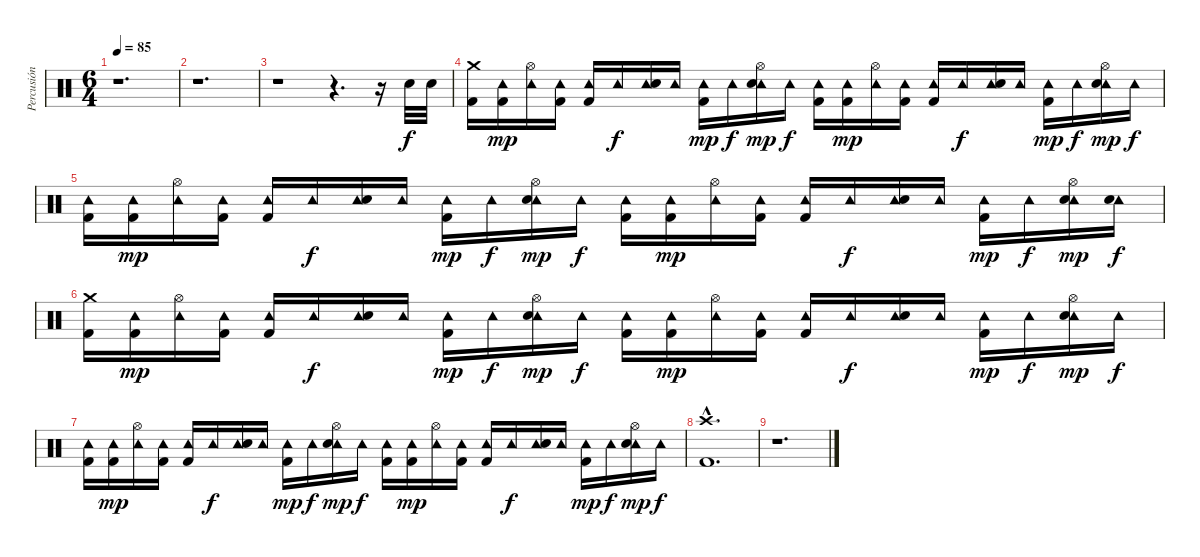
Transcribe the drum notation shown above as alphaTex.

\track ("Percusión" "Percusión") {instrument percussion}
\staff {score}
\articulation defaults
\ts (6 4)
\tempo 85
\clef neutral
\ks c
r.1{d dy f} |
r.1{d} |
r.1 r.4{d} r.16 "Electric Snare (hit)".32 "Electric Snare (hit)".32 |
("Crash medium (hit)" "Kick (hit) 2").16 ("Tambourine (hit)" "Kick (hit) 2").16{dy mp} ("Hi-Hat (open)" "Tambourine (hit)").16 ("Tambourine (hit)" "Kick (hit) 2").16 ("Tambourine (hit)" "Kick (hit) 2").16 "Tambourine (hit)".16{dy f} ("Tambourine (hit)" "Electric Snare (hit)").16 "Tambourine (hit)".16 ("Tambourine (hit)" "Kick (hit) 2").16{dy mp} "Tambourine (hit)".16{dy f} ("Hi-Hat (open)" "Tambourine (hit)" "Electric Snare (hit)").16{dy mp} "Tambourine (hit)".16{dy f} ("Tambourine (hit)" "Kick (hit) 2").16 ("Tambourine (hit)" "Kick (hit) 2").16{dy mp} ("Hi-Hat (open)" "Tambourine (hit)").16 ("Tambourine (hit)" "Kick (hit) 2").16 ("Tambourine (hit)" "Kick (hit) 2").16 "Tambourine (hit)".16{dy f} ("Tambourine (hit)" "Electric Snare (hit)").16 "Tambourine (hit)".16 ("Tambourine (hit)" "Kick (hit) 2").16{dy mp} "Tambourine (hit)".16{dy f} ("Hi-Hat (open)" "Tambourine (hit)" "Electric Snare (hit)").16{dy mp} "Tambourine (hit)".16{dy f} |
("Tambourine (hit)" "Kick (hit) 2").16 ("Tambourine (hit)" "Kick (hit) 2").16{dy mp} ("Hi-Hat (open)" "Tambourine (hit)").16 ("Tambourine (hit)" "Kick (hit) 2").16 ("Tambourine (hit)" "Kick (hit) 2").16 "Tambourine (hit)".16{dy f} ("Tambourine (hit)" "Electric Snare (hit)").16 "Tambourine (hit)".16 ("Tambourine (hit)" "Kick (hit) 2").16{dy mp} "Tambourine (hit)".16{dy f} ("Hi-Hat (open)" "Tambourine (hit)" "Electric Snare (hit)").16{dy mp} "Tambourine (hit)".16{dy f} ("Tambourine (hit)" "Kick (hit) 2").16 ("Tambourine (hit)" "Kick (hit) 2").16{dy mp} ("Hi-Hat (open)" "Tambourine (hit)").16 ("Tambourine (hit)" "Kick (hit) 2").16 ("Tambourine (hit)" "Kick (hit) 2").16 "Tambourine (hit)".16{dy f} ("Tambourine (hit)" "Electric Snare (hit)").16 "Tambourine (hit)".16 ("Tambourine (hit)" "Kick (hit) 2").16{dy mp} "Tambourine (hit)".16{dy f} ("Hi-Hat (open)" "Tambourine (hit)" "Electric Snare (hit)").16{dy mp} ("Tambourine (hit)" "Electric Snare (hit)").16{dy f} |
("Crash medium (hit)" "Kick (hit) 2").16 ("Tambourine (hit)" "Kick (hit) 2").16{dy mp} ("Hi-Hat (open)" "Tambourine (hit)").16 ("Tambourine (hit)" "Kick (hit) 2").16 ("Tambourine (hit)" "Kick (hit) 2").16 "Tambourine (hit)".16{dy f} ("Tambourine (hit)" "Electric Snare (hit)").16 "Tambourine (hit)".16 ("Tambourine (hit)" "Kick (hit) 2").16{dy mp} "Tambourine (hit)".16{dy f} ("Hi-Hat (open)" "Tambourine (hit)" "Electric Snare (hit)").16{dy mp} "Tambourine (hit)".16{dy f} ("Tambourine (hit)" "Kick (hit) 2").16 ("Tambourine (hit)" "Kick (hit) 2").16{dy mp} ("Hi-Hat (open)" "Tambourine (hit)").16 ("Tambourine (hit)" "Kick (hit) 2").16 ("Tambourine (hit)" "Kick (hit) 2").16 "Tambourine (hit)".16{dy f} ("Tambourine (hit)" "Electric Snare (hit)").16 "Tambourine (hit)".16 ("Tambourine (hit)" "Kick (hit) 2").16{dy mp} "Tambourine (hit)".16{dy f} ("Hi-Hat (open)" "Tambourine (hit)" "Electric Snare (hit)").16{dy mp} "Tambourine (hit)".16{dy f} |
("Tambourine (hit)" "Kick (hit) 2").16 ("Tambourine (hit)" "Kick (hit) 2").16{dy mp} ("Hi-Hat (open)" "Tambourine (hit)").16 ("Tambourine (hit)" "Kick (hit) 2").16 ("Tambourine (hit)" "Kick (hit) 2").16 "Tambourine (hit)".16{dy f} ("Tambourine (hit)" "Electric Snare (hit)").16 "Tambourine (hit)".16 ("Tambourine (hit)" "Kick (hit) 2").16{dy mp} "Tambourine (hit)".16{dy f} ("Hi-Hat (open)" "Tambourine (hit)" "Electric Snare (hit)").16{dy mp} "Tambourine (hit)".16{dy f} ("Tambourine (hit)" "Kick (hit) 2").16 ("Tambourine (hit)" "Kick (hit) 2").16{dy mp} ("Hi-Hat (open)" "Tambourine (hit)").16 ("Tambourine (hit)" "Kick (hit) 2").16 ("Tambourine (hit)" "Kick (hit) 2").16 "Tambourine (hit)".16{dy f} ("Tambourine (hit)" "Electric Snare (hit)").16 "Tambourine (hit)".16 ("Tambourine (hit)" "Kick (hit) 2").16{dy mp} "Tambourine (hit)".16{dy f} ("Hi-Hat (open)" "Tambourine (hit)" "Electric Snare (hit)").16{dy mp} "Tambourine (hit)".16{dy f} |
("Crash high (hit)"{hac} "Kick (hit) 2"{hac}).1{d} |
r.1{d}
